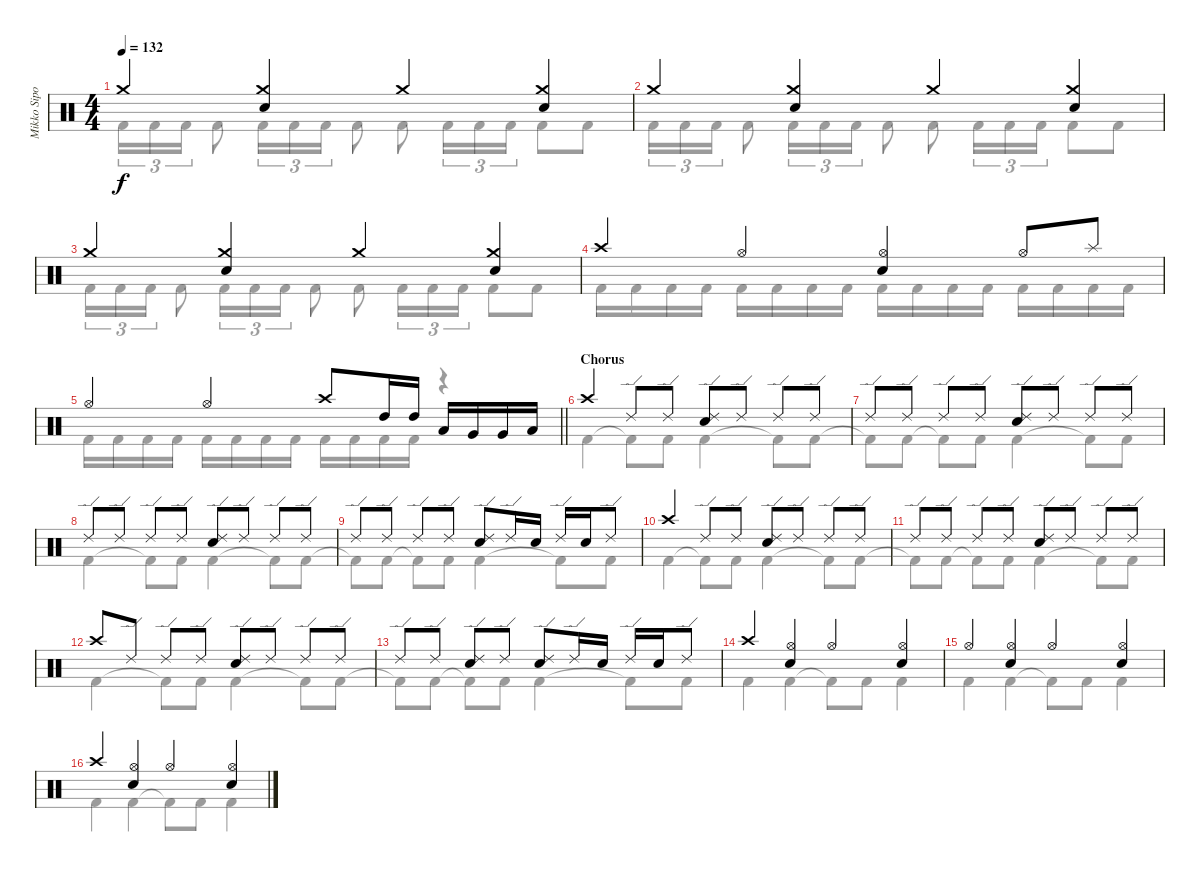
\track ("Mikko Sipola (drums)" "Mikko Sipo") {instrument percussion}
\staff {score}
\articulation defaults
\voice
\ts (4 4)
\tempo 132
\clef neutral
\ks c "Crash medium (hit)".4{dy f}
("Crash medium (hit)" "Electric Snare (hit)").4 "Crash medium (hit)".4 ("Crash medium (hit)" "Electric Snare (hit)").4 |
"Crash medium (hit)".4 ("Crash medium (hit)" "Electric Snare (hit)").4 "Crash medium (hit)".4 ("Crash medium (hit)" "Electric Snare (hit)").4 |
"Crash medium (hit)".4 ("Crash medium (hit)" "Electric Snare (hit)").4 "Crash medium (hit)".4 ("Crash medium (hit)" "Electric Snare (hit)").4 |
"Crash high (hit)".4 "Hi-Hat (open)".4 ("Hi-Hat (open)" "Electric Snare (hit)").4 "Hi-Hat (open)".8 "Splash (hit)".8 |
\barLineRight lightlight "Hi-Hat (open)".4 "Hi-Hat (open)".4 "Crash high (hit)".8 "High Tom (hit)".16 "High Tom (hit)".16 "Low Tom (hit)".16 "Very Low Tom (hit)".16 "Very Low Tom (hit)".16 "Low Floor Tom (hit)".16
|
\section ("" "Chorus")
"Crash high (hit)".4 "Ride (edge) 2".8 "Ride (edge) 2".8 ("Ride (edge) 2" "Electric Snare (hit)").8 "Ride (edge) 2".8 "Ride (edge) 2".8 "Ride (edge) 2".8 |
"Ride (edge) 2".8 "Ride (edge) 2".8 "Ride (edge) 2".8 "Ride (edge) 2".8 ("Ride (edge) 2" "Electric Snare (hit)").8 "Ride (edge) 2".8 "Ride (edge) 2".8 "Ride (edge) 2".8 |
"Ride (edge) 2".8 "Ride (edge) 2".8 "Ride (edge) 2".8 "Ride (edge) 2".8 ("Ride (edge) 2" "Electric Snare (hit)").8 "Ride (edge) 2".8 "Ride (edge) 2".8 "Ride (edge) 2".8 |
"Ride (edge) 2".8 "Ride (edge) 2".8 "Ride (edge) 2".8 "Ride (edge) 2".8 ("Ride (edge) 2" "Electric Snare (hit)").8 "Ride (edge) 2".16 "Electric Snare (hit)".16 "Ride (edge) 2".16 "Electric Snare (hit)".16 "Ride (edge) 2".8 |
"Crash high (hit)".4 "Ride (edge) 2".8 "Ride (edge) 2".8 ("Ride (edge) 2" "Electric Snare (hit)").8 "Ride (edge) 2".8 "Ride (edge) 2".8 "Ride (edge) 2".8 |
"Ride (edge) 2".8 "Ride (edge) 2".8 "Ride (edge) 2".8 "Ride (edge) 2".8 ("Ride (edge) 2" "Electric Snare (hit)").8 "Ride (edge) 2".8 "Ride (edge) 2".8 "Ride (edge) 2".8 |
"Crash high (hit)".8 "Ride (edge) 2".8 "Ride (edge) 2".8 "Ride (edge) 2".8 ("Ride (edge) 2" "Electric Snare (hit)").8 "Ride (edge) 2".8 "Ride (edge) 2".8 "Ride (edge) 2".8 |
"Ride (edge) 2".8 "Ride (edge) 2".8 ("Ride (edge) 2" "Electric Snare (hit)").8 "Ride (edge) 2".8 ("Ride (edge) 2" "Electric Snare (hit)").8 "Ride (edge) 2".16 "Electric Snare (hit)".16 "Ride (edge) 2".16 "Electric Snare (hit)".16 "Ride (edge) 2".8 |
"Crash high (hit)".4 ("Hi-Hat (open)" "Electric Snare (hit)").4 "Hi-Hat (open)".4 ("Hi-Hat (open)" "Electric Snare (hit)").4 |
"Hi-Hat (open)".4 ("Hi-Hat (open)" "Electric Snare (hit)").4 "Hi-Hat (open)".4 ("Hi-Hat (open)" "Electric Snare (hit)").4 |
"Crash high (hit)".4 ("Hi-Hat (open)" "Electric Snare (hit)").4 "Hi-Hat (open)".4 ("Hi-Hat (open)" "Electric Snare (hit)").4
\voice
\clef neutral
\ottava regular
\simile none
\ks c "Kick (hit) 2".16{tu (3 2) dy f} "Kick (hit) 2".16{tu (3 2)} "Kick (hit) 2".16{tu (3 2)} "Kick (hit) 2".8 "Kick (hit) 2".16{tu (3 2)} "Kick (hit) 2".16{tu (3 2)} "Kick (hit) 2".16{tu (3 2)} "Kick (hit) 2".8 "Kick (hit) 2".8 "Kick (hit) 2".16{tu (3 2)} "Kick (hit) 2".16{tu (3 2)} "Kick (hit) 2".16{tu (3 2)} "Kick (hit) 2".8 "Kick (hit) 2".8
|
"Kick (hit) 2".16{tu (3 2)} "Kick (hit) 2".16{tu (3 2)} "Kick (hit) 2".16{tu (3 2)} "Kick (hit) 2".8 "Kick (hit) 2".16{tu (3 2)} "Kick (hit) 2".16{tu (3 2)} "Kick (hit) 2".16{tu (3 2)} "Kick (hit) 2".8 "Kick (hit) 2".8 "Kick (hit) 2".16{tu (3 2)} "Kick (hit) 2".16{tu (3 2)} "Kick (hit) 2".16{tu (3 2)} "Kick (hit) 2".8 "Kick (hit) 2".8 |
"Kick (hit) 2".16{tu (3 2)} "Kick (hit) 2".16{tu (3 2)} "Kick (hit) 2".16{tu (3 2)} "Kick (hit) 2".8 "Kick (hit) 2".16{tu (3 2)} "Kick (hit) 2".16{tu (3 2)} "Kick (hit) 2".16{tu (3 2)} "Kick (hit) 2".8 "Kick (hit) 2".8 "Kick (hit) 2".16{tu (3 2)} "Kick (hit) 2".16{tu (3 2)} "Kick (hit) 2".16{tu (3 2)} "Kick (hit) 2".8 "Kick (hit) 2".8 |
"Kick (hit) 2".16 "Kick (hit) 2".16 "Kick (hit) 2".16 "Kick (hit) 2".16 "Kick (hit) 2".16 "Kick (hit) 2".16 "Kick (hit) 2".16 "Kick (hit) 2".16 "Kick (hit) 2".16 "Kick (hit) 2".16 "Kick (hit) 2".16 "Kick (hit) 2".16 "Kick (hit) 2".16 "Kick (hit) 2".16 "Kick (hit) 2".16 "Kick (hit) 2".16 |
\barLineRight lightlight "Kick (hit) 2".16 "Kick (hit) 2".16 "Kick (hit) 2".16 "Kick (hit) 2".16 "Kick (hit) 2".16 "Kick (hit) 2".16 "Kick (hit) 2".16 "Kick (hit) 2".16 "Kick (hit) 2".16 "Kick (hit) 2".16 "Kick (hit) 2".16 "Kick (hit) 2".16
r.4 |
"Kick (hit) 2".4 "Kick (hit) 2"{t}.8 "Kick (hit) 2".8 "Kick (hit) 2".4 "Kick (hit) 2"{t}.8 "Kick (hit) 2".8 |
"Kick (hit) 2"{t}.8 "Kick (hit) 2".8 "Kick (hit) 2"{t}.8 "Kick (hit) 2".8 "Kick (hit) 2".4 "Kick (hit) 2"{t}.8 "Kick (hit) 2".8 |
"Kick (hit) 2".4 "Kick (hit) 2"{t}.8 "Kick (hit) 2".8 "Kick (hit) 2".4 "Kick (hit) 2"{t}.8 "Kick (hit) 2".8 |
"Kick (hit) 2"{t}.8 "Kick (hit) 2".8 "Kick (hit) 2"{t}.8 "Kick (hit) 2".8 "Kick (hit) 2".4 "Kick (hit) 2"{t}.8 "Kick (hit) 2".8 |
"Kick (hit) 2".4 "Kick (hit) 2"{t}.8 "Kick (hit) 2".8 "Kick (hit) 2".4 "Kick (hit) 2"{t}.8 "Kick (hit) 2".8 |
"Kick (hit) 2"{t}.8 "Kick (hit) 2".8 "Kick (hit) 2"{t}.8 "Kick (hit) 2".8 "Kick (hit) 2".4 "Kick (hit) 2"{t}.8 "Kick (hit) 2".8 |
"Kick (hit) 2".4 "Kick (hit) 2"{t}.8 "Kick (hit) 2".8 "Kick (hit) 2".4 "Kick (hit) 2"{t}.8 "Kick (hit) 2".8 |
"Kick (hit) 2"{t}.8 "Kick (hit) 2".8 "Kick (hit) 2"{t}.8 "Kick (hit) 2".8 "Kick (hit) 2".4 "Kick (hit) 2"{t}.8 "Kick (hit) 2".8 |
"Kick (hit) 2".4 "Kick (hit) 2".4 "Kick (hit) 2"{t}.8 "Kick (hit) 2".8 "Kick (hit) 2".4 |
"Kick (hit) 2".4 "Kick (hit) 2".4 "Kick (hit) 2"{t}.8 "Kick (hit) 2".8 "Kick (hit) 2".4 |
"Kick (hit) 2".4 "Kick (hit) 2".4 "Kick (hit) 2"{t}.8 "Kick (hit) 2".8 "Kick (hit) 2".4
